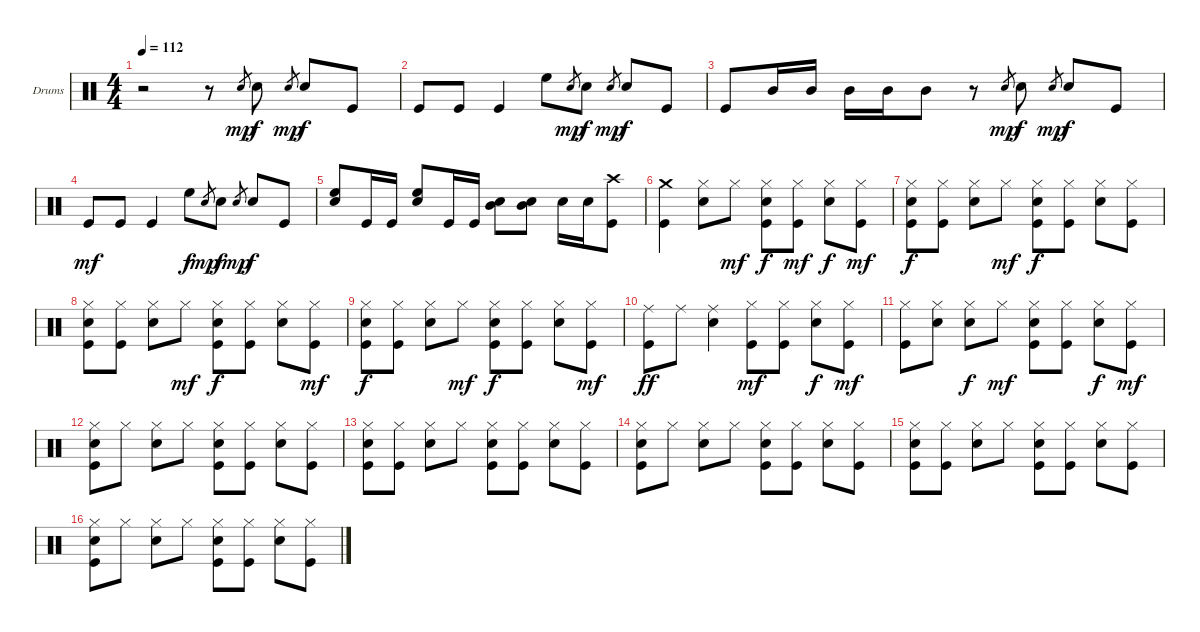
\bracketExtendMode groupsimilarinstruments
\firstSystemTrackNameOrientation horizontal
\otherSystemsTrackNameOrientation horizontal
\track ("Drumkit" "Drums") {instrument percussion}
\staff {score}
\articulation defaults
\ts (4 4)
\tempo 112
\clef neutral
\ks c
r.2{dy mp} r.8 "Snare (hit) 2".8{gr} "Snare (hit) 2".8{dy f} "Snare (hit) 2".8{gr dy mp} "Snare (hit) 2".8{dy f} "Kick (hit)".8 |
"Kick (hit)".8 "Kick (hit)".8 "Kick (hit)".4 "High Floor Tom (hit)".8 "Snare (hit) 2".8{gr dy mp} "Snare (hit) 2".8{dy f} "Snare (hit) 2".8{gr dy mp} "Snare (hit) 2".8{dy f} "Kick (hit)".8 |
"Kick (hit)".8 "Mid Tom (hit)".16 "Mid Tom (hit)".16 "Mid Tom (hit)".16 "Mid Tom (hit)".16 "Mid Tom (hit)".8 r.8 "Snare (hit) 2".8{gr dy mp} "Snare (hit) 2".8{dy f} "Snare (hit) 2".8{gr dy mp} "Snare (hit) 2".8{dy f} "Kick (hit)".8 |
"Kick (hit)".8{dy mf} "Kick (hit)".8 "Kick (hit)".4 "High Floor Tom (hit)".8{dy f} "Snare (hit) 2".8{gr dy mp} "Snare (hit) 2".8{dy f} "Snare (hit) 2".8{gr dy mp} "Snare (hit) 2".8{dy f} "Kick (hit)".8 |
("High Floor Tom (hit)" "Snare (hit) 2").8 "Kick (hit)".16 "Kick (hit)".16 ("High Floor Tom (hit)" "Snare (hit) 2").8 "Kick (hit)".16 "Kick (hit)".16 ("Mid Tom (hit)" "Snare (hit) 2").8 ("Mid Tom (hit)" "Snare (hit) 2").8 "Snare (hit) 2".16 "Snare (hit) 2".16 ("Crash high (hit)" "Kick (hit)").8 |
("Crash medium (hit)" "Kick (hit)").4 ("Hi-Hat (closed)" "Snare (hit) 2").8 "Hi-Hat (closed)".8{dy mf} ("Hi-Hat (closed)" "Snare (hit) 2" "Kick (hit)").8{dy f} ("Hi-Hat (closed)" "Kick (hit)").8{dy mf} ("Hi-Hat (closed)" "Snare (hit) 2").8{dy f} ("Hi-Hat (closed)" "Kick (hit)").8{dy mf} |
("Hi-Hat (closed)" "Snare (hit) 2" "Kick (hit)").8{dy f} ("Hi-Hat (closed)" "Kick (hit)").8 ("Hi-Hat (closed)" "Snare (hit) 2").8 "Hi-Hat (closed)".8{dy mf} ("Hi-Hat (closed)" "Snare (hit) 2" "Kick (hit)").8{dy f} ("Hi-Hat (closed)" "Kick (hit)").8 ("Hi-Hat (closed)" "Snare (hit) 2").8 ("Hi-Hat (closed)" "Kick (hit)").8 |
("Hi-Hat (closed)" "Snare (hit) 2" "Kick (hit)").8 ("Hi-Hat (closed)" "Kick (hit)").8 ("Hi-Hat (closed)" "Snare (hit) 2").8 "Hi-Hat (closed)".8{dy mf} ("Hi-Hat (closed)" "Snare (hit) 2" "Kick (hit)").8{dy f} ("Hi-Hat (closed)" "Kick (hit)").8 ("Hi-Hat (closed)" "Snare (hit) 2").8 ("Hi-Hat (closed)" "Kick (hit)").8{dy mf} |
("Hi-Hat (closed)" "Snare (hit) 2" "Kick (hit)").8{dy f} ("Hi-Hat (closed)" "Kick (hit)").8 ("Hi-Hat (closed)" "Snare (hit) 2").8 "Hi-Hat (closed)".8{dy mf} ("Hi-Hat (closed)" "Snare (hit) 2" "Kick (hit)").8{dy f} ("Hi-Hat (closed)" "Kick (hit)").8 ("Hi-Hat (closed)" "Snare (hit) 2").8 ("Hi-Hat (closed)" "Kick (hit)").8{dy mf} |
("Ride (middle)" "Kick (hit)").8{dy ff} "Ride (middle)".8 ("Ride (middle)" "Snare (hit) 2").4 ("Hi-Hat (closed)" "Kick (hit)").8{dy mf} ("Hi-Hat (closed)" "Kick (hit)").8 ("Hi-Hat (closed)" "Snare (hit) 2").8{dy f} ("Hi-Hat (closed)" "Kick (hit)").8{dy mf} |
("Hi-Hat (closed)" "Kick (hit)").8 ("Hi-Hat (closed)" "Snare (hit) 2").8 ("Hi-Hat (closed)" "Snare (hit) 2").8{dy f} "Hi-Hat (closed)".8{dy mf} ("Hi-Hat (closed)" "Snare (hit) 2" "Kick (hit)").8 ("Hi-Hat (closed)" "Kick (hit)").8 ("Hi-Hat (closed)" "Snare (hit) 2").8{dy f} ("Hi-Hat (closed)" "Kick (hit)").8{dy mf} |
("Hi-Hat (closed)" "Snare (hit) 2" "Kick (hit)").8 "Hi-Hat (closed)".8 ("Hi-Hat (closed)" "Snare (hit) 2").8 "Hi-Hat (closed)".8 ("Hi-Hat (closed)" "Snare (hit) 2" "Kick (hit)").8 ("Hi-Hat (closed)" "Kick (hit)").8 ("Hi-Hat (closed)" "Snare (hit) 2").8 ("Hi-Hat (closed)" "Kick (hit)").8 |
("Hi-Hat (closed)" "Snare (hit) 2" "Kick (hit)").8 ("Hi-Hat (closed)" "Kick (hit)").8 ("Hi-Hat (closed)" "Snare (hit) 2").8 "Hi-Hat (closed)".8 ("Hi-Hat (closed)" "Snare (hit) 2" "Kick (hit)").8 ("Hi-Hat (closed)" "Kick (hit)").8 ("Hi-Hat (closed)" "Snare (hit) 2").8 ("Hi-Hat (closed)" "Kick (hit)").8 |
("Hi-Hat (closed)" "Snare (hit) 2" "Kick (hit)").8 "Hi-Hat (closed)".8 ("Hi-Hat (closed)" "Snare (hit) 2").8 "Hi-Hat (closed)".8 ("Hi-Hat (closed)" "Snare (hit) 2" "Kick (hit)").8 ("Hi-Hat (closed)" "Kick (hit)").8 ("Hi-Hat (closed)" "Snare (hit) 2").8 ("Hi-Hat (closed)" "Kick (hit)").8 |
("Hi-Hat (closed)" "Snare (hit) 2" "Kick (hit)").8 ("Hi-Hat (closed)" "Kick (hit)").8 ("Hi-Hat (closed)" "Snare (hit) 2").8 "Hi-Hat (closed)".8 ("Hi-Hat (closed)" "Snare (hit) 2" "Kick (hit)").8 ("Hi-Hat (closed)" "Kick (hit)").8 ("Hi-Hat (closed)" "Snare (hit) 2").8 ("Hi-Hat (closed)" "Kick (hit)").8 |
("Hi-Hat (closed)" "Snare (hit) 2" "Kick (hit)").8 "Hi-Hat (closed)".8 ("Hi-Hat (closed)" "Snare (hit) 2").8 "Hi-Hat (closed)".8 ("Hi-Hat (closed)" "Snare (hit) 2" "Kick (hit)").8 ("Hi-Hat (closed)" "Kick (hit)").8 ("Hi-Hat (closed)" "Snare (hit) 2").8 ("Hi-Hat (closed)" "Kick (hit)").8
